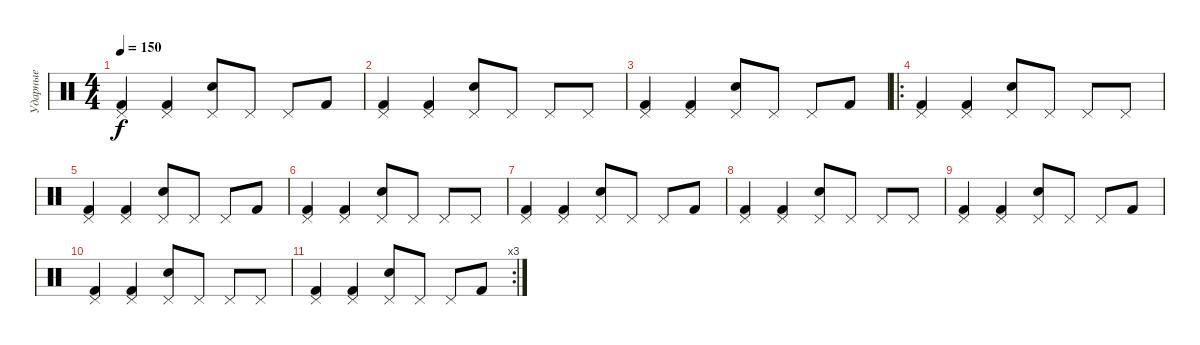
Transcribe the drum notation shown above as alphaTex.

\track ("Ударные" "Ударные") {instrument percussion}
\staff {score}
\articulation defaults
\ts (4 4)
\tempo 150
\clef neutral
\ks c
("Pedal Hi-Hat (hit)" "Kick (hit) 2").4{dy f} ("Pedal Hi-Hat (hit)" "Kick (hit) 2").4 ("Pedal Hi-Hat (hit)" "Snare (hit) 2").8 "Pedal Hi-Hat (hit)".8 "Pedal Hi-Hat (hit)".8 "Kick (hit) 2".8 |
("Pedal Hi-Hat (hit)" "Kick (hit) 2").4 ("Pedal Hi-Hat (hit)" "Kick (hit) 2").4 ("Pedal Hi-Hat (hit)" "Snare (hit) 2").8 "Pedal Hi-Hat (hit)".8 "Pedal Hi-Hat (hit)".8 "Pedal Hi-Hat (hit)".8 |
("Pedal Hi-Hat (hit)" "Kick (hit) 2").4 ("Pedal Hi-Hat (hit)" "Kick (hit) 2").4 ("Pedal Hi-Hat (hit)" "Snare (hit) 2").8 "Pedal Hi-Hat (hit)".8 "Pedal Hi-Hat (hit)".8 "Kick (hit) 2".8 |
\ro
("Pedal Hi-Hat (hit)" "Kick (hit) 2").4 ("Pedal Hi-Hat (hit)" "Kick (hit) 2").4 ("Pedal Hi-Hat (hit)" "Snare (hit) 2").8 "Pedal Hi-Hat (hit)".8 "Pedal Hi-Hat (hit)".8 "Pedal Hi-Hat (hit)".8 |
("Pedal Hi-Hat (hit)" "Kick (hit) 2").4 ("Pedal Hi-Hat (hit)" "Kick (hit) 2").4 ("Pedal Hi-Hat (hit)" "Snare (hit) 2").8 "Pedal Hi-Hat (hit)".8 "Pedal Hi-Hat (hit)".8 "Kick (hit) 2".8 |
("Pedal Hi-Hat (hit)" "Kick (hit) 2").4 ("Pedal Hi-Hat (hit)" "Kick (hit) 2").4 ("Pedal Hi-Hat (hit)" "Snare (hit) 2").8 "Pedal Hi-Hat (hit)".8 "Pedal Hi-Hat (hit)".8 "Pedal Hi-Hat (hit)".8 |
("Pedal Hi-Hat (hit)" "Kick (hit) 2").4 ("Pedal Hi-Hat (hit)" "Kick (hit) 2").4 ("Pedal Hi-Hat (hit)" "Snare (hit) 2").8 "Pedal Hi-Hat (hit)".8 "Pedal Hi-Hat (hit)".8 "Kick (hit) 2".8 |
("Pedal Hi-Hat (hit)" "Kick (hit) 2").4 ("Pedal Hi-Hat (hit)" "Kick (hit) 2").4 ("Pedal Hi-Hat (hit)" "Snare (hit) 2").8 "Pedal Hi-Hat (hit)".8 "Pedal Hi-Hat (hit)".8 "Pedal Hi-Hat (hit)".8 |
("Pedal Hi-Hat (hit)" "Kick (hit) 2").4 ("Pedal Hi-Hat (hit)" "Kick (hit) 2").4 ("Pedal Hi-Hat (hit)" "Snare (hit) 2").8 "Pedal Hi-Hat (hit)".8 "Pedal Hi-Hat (hit)".8 "Kick (hit) 2".8 |
("Pedal Hi-Hat (hit)" "Kick (hit) 2").4 ("Pedal Hi-Hat (hit)" "Kick (hit) 2").4 ("Pedal Hi-Hat (hit)" "Snare (hit) 2").8 "Pedal Hi-Hat (hit)".8 "Pedal Hi-Hat (hit)".8 "Pedal Hi-Hat (hit)".8 |
\rc 3
("Pedal Hi-Hat (hit)" "Kick (hit) 2").4 ("Pedal Hi-Hat (hit)" "Kick (hit) 2").4 ("Pedal Hi-Hat (hit)" "Snare (hit) 2").8 "Pedal Hi-Hat (hit)".8 "Pedal Hi-Hat (hit)".8 "Kick (hit) 2".8
